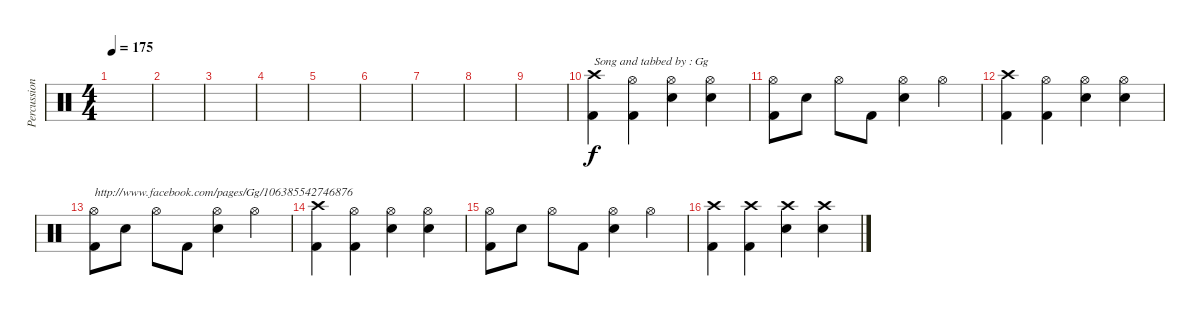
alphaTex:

\track ("Percussion" "Percussion") {instrument percussion}
\staff {score}
\articulation defaults
\ts (4 4)
\tempo 175
\tempo 150
\tempo 175
\clef neutral
\ks c
|
|
|
|
|
|
|
|
|
("Kick (hit) 2" "Crash high (hit)").4{txt "Song and tabbed by : Gg"} ("Kick (hit) 2" "Hi-Hat (open)").4 ("Electric Snare (hit)" "Hi-Hat (open)").4 ("Electric Snare (hit)" "Hi-Hat (open)").4 |
("Kick (hit) 2" "Hi-Hat (open)").8 "Electric Snare (hit)".8 "Hi-Hat (open)".8 "Kick (hit) 2".8 ("Electric Snare (hit)" "Hi-Hat (open)").4 "Hi-Hat (open)".4 |
("Kick (hit) 2" "Crash high (hit)").4 ("Kick (hit) 2" "Hi-Hat (open)").4 ("Electric Snare (hit)" "Hi-Hat (open)").4 ("Electric Snare (hit)" "Hi-Hat (open)").4 |
("Kick (hit) 2" "Hi-Hat (open)").8{txt "http://www.facebook.com/pages/Gg/106385542746876"} "Electric Snare (hit)".8 "Hi-Hat (open)".8 "Kick (hit) 2".8 ("Electric Snare (hit)" "Hi-Hat (open)").4 "Hi-Hat (open)".4 |
("Kick (hit) 2" "Crash high (hit)").4 ("Kick (hit) 2" "Hi-Hat (open)").4 ("Electric Snare (hit)" "Hi-Hat (open)").4 ("Electric Snare (hit)" "Hi-Hat (open)").4 |
("Kick (hit) 2" "Hi-Hat (open)").8 "Electric Snare (hit)".8 "Hi-Hat (open)".8 "Kick (hit) 2".8 ("Electric Snare (hit)" "Hi-Hat (open)").4 "Hi-Hat (open)".4 |
("Kick (hit) 2" "Crash high (hit)").4 ("Kick (hit) 2" "Crash high (hit)").4 ("Electric Snare (hit)" "Crash high (hit)").4 ("Electric Snare (hit)" "Crash high (hit)").4
